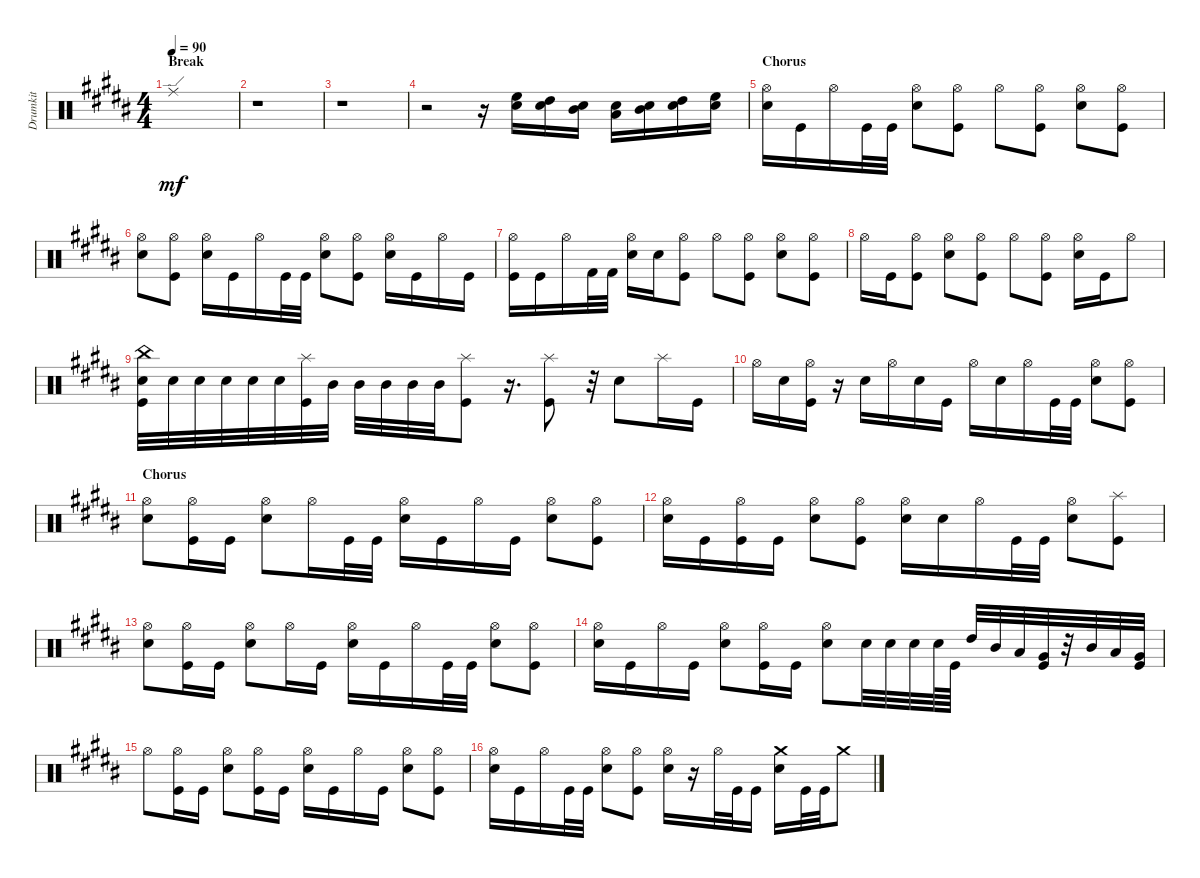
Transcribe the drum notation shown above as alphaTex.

\track ("Drumkit" "Drumkit") {instrument percussion}
\staff {score}
\articulation defaults
\ts (4 4)
\section ("" "Break")
\tempo 90
\clef neutral
\ks b "Ride (edge)"{t}.1{dy mf}
|
r.1 |
r.1 |
r.2 r.16 ("Snare (hit) 2" "High Floor Tom (hit)").16 ("Snare (hit) 2" "High Tom (hit)").16 ("Snare (hit) 2" "Mid Tom (hit)").16 ("Snare (hit) 2" "Low Tom (hit)").16 ("Snare (hit) 2" "Mid Tom (hit)").16 ("Snare (hit) 2" "High Tom (hit)").16 ("Snare (hit) 2" "High Floor Tom (hit)").16 |
\section ("" "Chorus")
("Snare (hit) 2" "Hi-Hat (open)").16 "Kick (hit)".16 "Hi-Hat (open)".16 "Kick (hit)".32 "Kick (hit)".32 ("Snare (hit) 2" "Hi-Hat (open)").8 ("Kick (hit)" "Hi-Hat (open)").8 "Hi-Hat (open)".8 ("Kick (hit)" "Hi-Hat (open)").8 ("Snare (hit) 2" "Hi-Hat (open)").8 ("Kick (hit)" "Hi-Hat (open)").8 |
("Snare (hit) 2" "Hi-Hat (open)").8 ("Kick (hit)" "Hi-Hat (open)").8 ("Snare (hit) 2" "Hi-Hat (open)").16 "Kick (hit)".16 "Hi-Hat (open)".16 "Kick (hit)".32 "Kick (hit)".32 ("Snare (hit) 2" "Hi-Hat (open)").8 ("Kick (hit)" "Hi-Hat (open)").8 ("Snare (hit) 2" "Hi-Hat (open)").16 "Kick (hit)".16 "Hi-Hat (open)".16 "Kick (hit)".16 |
("Kick (hit)" "Hi-Hat (open)").16 "Kick (hit)".16 "Hi-Hat (open)".16 "Kick (hit) 2".32 "Kick (hit) 2".32 ("Snare (hit) 2" "Hi-Hat (open)").16 "Snare (hit) 2".16 ("Hi-Hat (open)" "Kick (hit)").8 "Hi-Hat (open)".8 ("Hi-Hat (open)" "Kick (hit)").8 ("Hi-Hat (open)" "Snare (hit) 2").8 ("Kick (hit)" "Hi-Hat (open)").8 |
"Hi-Hat (open)".16 "Kick (hit)".16 ("Hi-Hat (open)" "Kick (hit)").8 ("Snare (hit) 2" "Hi-Hat (open)").8 ("Kick (hit)" "Hi-Hat (open)").8 "Hi-Hat (open)".8 ("Kick (hit)" "Hi-Hat (open)").8 ("Snare (hit) 2" "Hi-Hat (open)").16 "Kick (hit)".16 "Hi-Hat (open)".8 |
("Kick (hit)" "Snare (hit) 2" "China (hit)").32 "Snare (hit) 2".32 "Snare (hit) 2".32 "Snare (hit) 2".32 "Snare (hit) 2".32 "Snare (hit) 2".32 ("Kick (hit)" "Splash (hit)").32 "Mid Tom (hit)".32 "Mid Tom (hit)".32 "Mid Tom (hit)".32 "Mid Tom (hit)".32 "Mid Tom (hit)".32 ("Kick (hit)" "Splash (hit)").8 r.16{d} ("Kick (hit)" "Splash (hit)").8 r.32 "Snare (hit) 2".8 "Splash (hit)".16 "Kick (hit)".16 |
"Hi-Hat (open)".16 "Snare (hit) 2".16 ("Kick (hit)" "Hi-Hat (open)").16 r.16 "Snare (hit) 2".16 "Hi-Hat (open)".16 "Snare (hit) 2".16 "Kick (hit)".16 "Hi-Hat (open)".16 "Snare (hit) 2".16 "Hi-Hat (open)".16 "Kick (hit)".32 "Kick (hit)".32 ("Snare (hit) 2" "Hi-Hat (open)").8 ("Kick (hit)" "Hi-Hat (open)").8 |
\section ("" "Chorus")
("Snare (hit) 2" "Hi-Hat (open)").8 ("Kick (hit)" "Hi-Hat (open)").16 "Kick (hit)".16 ("Snare (hit) 2" "Hi-Hat (open)").8 "Hi-Hat (open)".16 "Kick (hit)".32 "Kick (hit)".32 ("Snare (hit) 2" "Hi-Hat (open)").16 "Kick (hit)".16 "Hi-Hat (open)".16 "Kick (hit)".16 ("Snare (hit) 2" "Hi-Hat (open)").8 ("Kick (hit)" "Hi-Hat (open)").8 |
("Snare (hit) 2" "Hi-Hat (open)").16 "Kick (hit)".16 ("Hi-Hat (open)" "Kick (hit)").16 "Kick (hit)".16 ("Snare (hit) 2" "Hi-Hat (open)").8 ("Hi-Hat (open)" "Kick (hit)").8 ("Snare (hit) 2" "Hi-Hat (open)").16 "Snare (hit) 2".16 "Hi-Hat (open)".16 "Kick (hit)".32 "Kick (hit)".32 ("Snare (hit) 2" "Hi-Hat (open)").8 ("Kick (hit)" "Splash (hit)").8 |
("Snare (hit) 2" "Hi-Hat (open)").8 ("Hi-Hat (open)" "Kick (hit)").16 "Kick (hit)".16 ("Snare (hit) 2" "Hi-Hat (open)").8 "Hi-Hat (open)".16 "Kick (hit)".16 ("Snare (hit) 2" "Hi-Hat (open)").16 "Kick (hit)".16 "Hi-Hat (open)".16 "Kick (hit)".32 "Kick (hit)".32 ("Snare (hit) 2" "Hi-Hat (open)").8 ("Kick (hit)" "Hi-Hat (open)").8 |
("Hi-Hat (open)" "Snare (hit) 2").16 "Kick (hit)".16 "Hi-Hat (open)".16 "Kick (hit)".16 ("Snare (hit) 2" "Hi-Hat (open)").8 ("Kick (hit)" "Hi-Hat (open)").16 "Kick (hit)".16 ("Snare (hit) 2" "Hi-Hat (open)").8 "Snare (hit) 2".32 "Snare (hit) 2".32 "Snare (hit) 2".32 "Snare (hit) 2".64 "Kick (hit)".64 "High Tom (hit)".32 "Mid Tom (hit)".32 "Low Tom (hit)".32 ("Very Low Tom (hit)" "Kick (hit)").32 r.32 "Mid Tom (hit)".32 "Low Tom (hit)".32 ("Very Low Tom (hit)" "Kick (hit)").32 |
"Hi-Hat (open)".8 ("Kick (hit)" "Hi-Hat (open)").16 "Kick (hit)".16 ("Hi-Hat (open)" "Snare (hit) 2").8 ("Kick (hit)" "Hi-Hat (open)").16 "Kick (hit)".16 ("Snare (hit) 2" "Hi-Hat (open)").16 "Kick (hit)".16 "Hi-Hat (open)".16 "Kick (hit)".16 ("Snare (hit) 2" "Hi-Hat (open)").8 ("Kick (hit)" "Hi-Hat (open)").8 |
("Snare (hit) 2" "Hi-Hat (open)").16 "Kick (hit)".16 "Hi-Hat (open)".16 "Kick (hit)".32 "Kick (hit)".32 ("Snare (hit) 2" "Hi-Hat (open)").8 ("Hi-Hat (open)" "Kick (hit)").8 ("Snare (hit) 2" "Hi-Hat (open)").16 r.16 "Hi-Hat (open)".32 "Kick (hit)".32 "Kick (hit)".16 ("Snare (hit) 2" "Crash medium (hit)").16 "Kick (hit)".32 "Kick (hit)".32 "Crash medium (hit)".8
